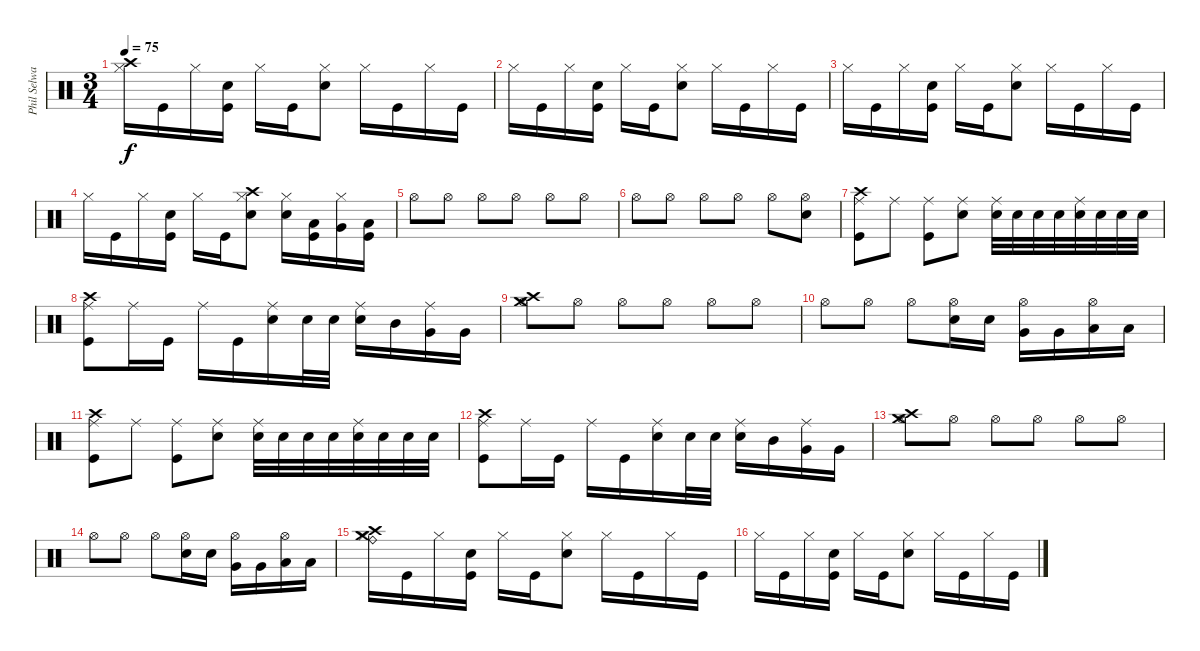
\track ("Phil Selway" "Phil Selwa") {instrument percussion}
\staff {score}
\articulation defaults
\ts (3 4)
\tempo 75
\clef neutral
\ks c
("Hi-Hat (closed)" "Crash high (hit)").16{dy f} "Kick (hit)".16 "Hi-Hat (closed)".16 ("Kick (hit)" "Snare (hit) 2").16 "Hi-Hat (closed)".16 "Kick (hit)".16 ("Snare (hit) 2" "Hi-Hat (closed)").8 "Hi-Hat (closed)".16 "Kick (hit)".16 "Hi-Hat (closed)".16 "Kick (hit)".16 |
"Hi-Hat (closed)".16 "Kick (hit)".16 "Hi-Hat (closed)".16 ("Kick (hit)" "Snare (hit) 2").16 "Hi-Hat (closed)".16 "Kick (hit)".16 ("Snare (hit) 2" "Hi-Hat (closed)").8 "Hi-Hat (closed)".16 "Kick (hit)".16 "Hi-Hat (closed)".16 "Kick (hit)".16 |
"Hi-Hat (closed)".16 "Kick (hit)".16 "Hi-Hat (closed)".16 ("Kick (hit)" "Snare (hit) 2").16 "Hi-Hat (closed)".16 "Kick (hit)".16 ("Snare (hit) 2" "Hi-Hat (closed)").8 "Hi-Hat (closed)".16 "Kick (hit)".16 "Hi-Hat (closed)".16 "Kick (hit)".16 |
"Hi-Hat (closed)".16 "Kick (hit)".16 "Hi-Hat (closed)".16 ("Kick (hit)" "Snare (hit) 2").16 "Hi-Hat (closed)".16 "Kick (hit)".16 ("Snare (hit) 2" "Hi-Hat (closed)" "Crash high (hit)").8 ("Snare (hit) 2" "Hi-Hat (closed)").16 ("Kick (hit)" "Low Tom (hit)").16 ("Hi-Hat (closed)" "Very Low Tom (hit)").16 ("Kick (hit)" "Low Floor Tom (hit)").16 |
"Hi-Hat (open)".8 "Hi-Hat (open)".8 "Hi-Hat (open)".8 "Hi-Hat (open)".8 "Hi-Hat (open)".8 "Hi-Hat (open)".8 |
"Hi-Hat (open)".8 "Hi-Hat (open)".8 "Hi-Hat (open)".8 "Hi-Hat (open)".8 "Hi-Hat (open)".8 ("Snare (hit) 2" "Hi-Hat (open)").8 |
("Kick (hit)" "Crash high (hit)" "Ride (middle)").8 "Ride (middle)".8 ("Kick (hit)" "Ride (middle)").8 ("Snare (hit) 2" "Ride (middle)").8 ("Snare (hit) 2" "Ride (middle)").32 "Snare (hit) 2".32 "Snare (hit) 2".32 "Snare (hit) 2".32 ("Snare (hit) 2" "Ride (middle)").32 "Snare (hit) 2".32 "Snare (hit) 2".32 "Snare (hit) 2".32 |
("Kick (hit)" "Crash high (hit)" "Ride (middle)").8 "Ride (middle)".16 "Kick (hit)".16 "Ride (middle)".16 "Kick (hit)".16 ("Snare (hit) 2" "Ride (middle)").16 "Snare (hit) 2".32 "Snare (hit) 2".32 ("Snare (hit) 2" "Ride (middle)").16 "Mid Tom (hit)".16 ("Very Low Tom (hit)" "Ride (middle)").16 "Very Low Tom (hit)".16 |
("Hi-Hat (open)" "Crash high (hit)" "Crash medium (hit)").8 "Hi-Hat (open)".8 "Hi-Hat (open)".8 "Hi-Hat (open)".8 "Hi-Hat (open)".8 "Hi-Hat (open)".8 |
"Hi-Hat (open)".8 "Hi-Hat (open)".8 "Hi-Hat (open)".8 ("Snare (hit) 2" "Hi-Hat (open)").16 "Snare (hit) 2".16 ("Very Low Tom (hit)" "Hi-Hat (open)").16 "Very Low Tom (hit)".16 ("Low Floor Tom (hit)" "Hi-Hat (open)").16 "Low Floor Tom (hit)".16 |
("Kick (hit)" "Crash high (hit)" "Ride (middle)").8 "Ride (middle)".8 ("Kick (hit)" "Ride (middle)").8 ("Snare (hit) 2" "Ride (middle)").8 ("Snare (hit) 2" "Ride (middle)").32 "Snare (hit) 2".32 "Snare (hit) 2".32 "Snare (hit) 2".32 ("Snare (hit) 2" "Ride (middle)").32 "Snare (hit) 2".32 "Snare (hit) 2".32 "Snare (hit) 2".32 |
("Kick (hit)" "Crash high (hit)" "Ride (middle)").8 "Ride (middle)".16 "Kick (hit)".16 "Ride (middle)".16 "Kick (hit)".16 ("Snare (hit) 2" "Ride (middle)").16 "Snare (hit) 2".32 "Snare (hit) 2".32 ("Snare (hit) 2" "Ride (middle)").16 "Mid Tom (hit)".16 ("Very Low Tom (hit)" "Ride (middle)").16 "Very Low Tom (hit)".16 |
("Hi-Hat (open)" "Crash high (hit)" "Crash medium (hit)").8 "Hi-Hat (open)".8 "Hi-Hat (open)".8 "Hi-Hat (open)".8 "Hi-Hat (open)".8 "Hi-Hat (open)".8 |
"Hi-Hat (open)".8 "Hi-Hat (open)".8 "Hi-Hat (open)".8 ("Snare (hit) 2" "Hi-Hat (open)").16 "Snare (hit) 2".16 ("Very Low Tom (hit)" "Hi-Hat (open)").16 "Very Low Tom (hit)".16 ("Low Floor Tom (hit)" "Hi-Hat (open)").16 "Low Floor Tom (hit)".16 |
("Hi-Hat (closed)" "Crash high (hit)" "Ride (bell)" "Crash medium (hit)").16 "Kick (hit)".16 "Hi-Hat (closed)".16 ("Kick (hit)" "Snare (hit) 2").16 "Hi-Hat (closed)".16 "Kick (hit)".16 ("Snare (hit) 2" "Hi-Hat (closed)").8 "Hi-Hat (closed)".16 "Kick (hit)".16 "Hi-Hat (closed)".16 "Kick (hit)".16 |
"Hi-Hat (closed)".16 "Kick (hit)".16 "Hi-Hat (closed)".16 ("Kick (hit)" "Snare (hit) 2").16 "Hi-Hat (closed)".16 "Kick (hit)".16 ("Snare (hit) 2" "Hi-Hat (closed)").8 "Hi-Hat (closed)".16 "Kick (hit)".16 "Hi-Hat (closed)".16 "Kick (hit)".16
